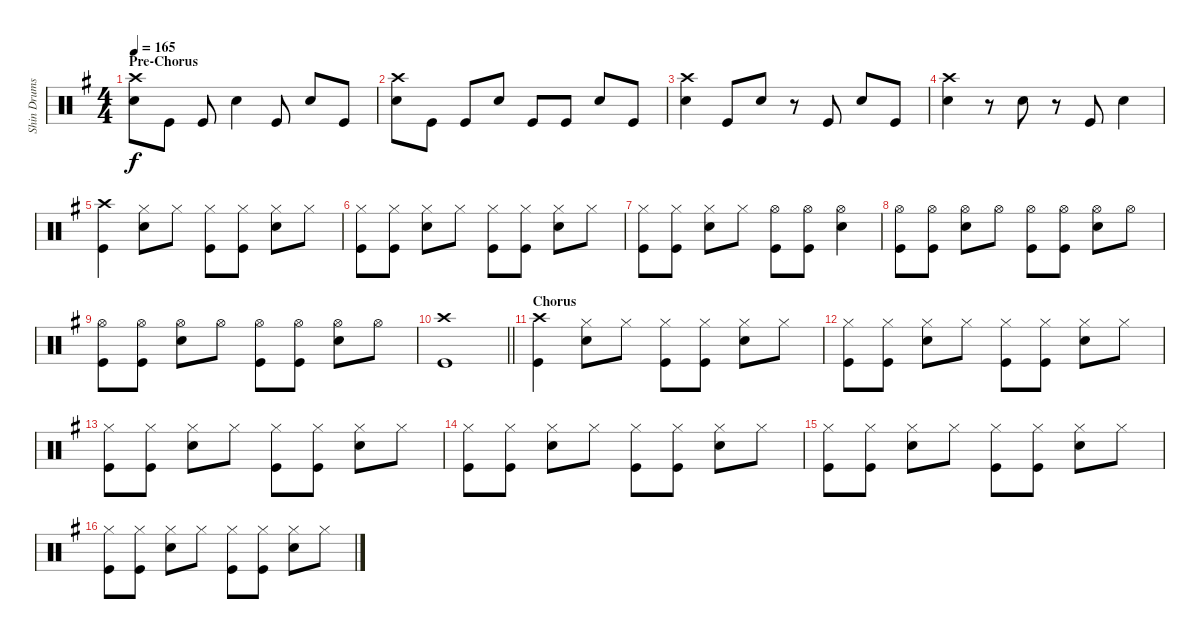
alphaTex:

\track ("Shin Drums" "Shin Drums") {instrument percussion}
\staff {score}
\articulation defaults
\ts (4 4)
\section ("" "Pre-Chorus")
\tempo 165
\clef neutral
\ks g
("Crash high (hit)" "Snare (hit) 2").8{dy f} "Kick (hit)".8 "Kick (hit)".8 "Snare (hit) 2".4 "Kick (hit)".8 "Snare (hit) 2".8 "Kick (hit)".8 |
("Crash high (hit)" "Snare (hit) 2").8 "Kick (hit)".8 "Kick (hit)".8 "Snare (hit) 2".8 "Kick (hit)".8 "Kick (hit)".8 "Snare (hit) 2".8 "Kick (hit)".8 |
("Crash high (hit)" "Snare (hit) 2").4 "Kick (hit)".8 "Snare (hit) 2".8 r.8 "Kick (hit)".8 "Snare (hit) 2".8 "Kick (hit)".8 |
("Crash high (hit)" "Snare (hit) 2").4 r.8 "Snare (hit) 2".8 r.8 "Kick (hit)".8 "Snare (hit) 2".4 |
("Crash high (hit)" "Kick (hit)").4 ("Hi-Hat (closed)" "Snare (hit) 2").8 "Hi-Hat (closed)".8 ("Hi-Hat (closed)" "Kick (hit)").8 ("Hi-Hat (closed)" "Kick (hit)").8 ("Hi-Hat (closed)" "Snare (hit) 2").8 "Hi-Hat (closed)".8 |
("Hi-Hat (closed)" "Kick (hit)").8 ("Hi-Hat (closed)" "Kick (hit)").8 ("Hi-Hat (closed)" "Snare (hit) 2").8 "Hi-Hat (closed)".8 ("Hi-Hat (closed)" "Kick (hit)").8 ("Hi-Hat (closed)" "Kick (hit)").8 ("Hi-Hat (closed)" "Snare (hit) 2").8 "Hi-Hat (closed)".8 |
("Hi-Hat (closed)" "Kick (hit)").8 ("Hi-Hat (closed)" "Kick (hit)").8 ("Hi-Hat (closed)" "Snare (hit) 2").8 "Hi-Hat (closed)".8 ("Hi-Hat (open)" "Kick (hit)").8 ("Hi-Hat (open)" "Kick (hit)").8 ("Hi-Hat (open)" "Snare (hit) 2").4 |
("Hi-Hat (open)" "Kick (hit)").8 ("Hi-Hat (open)" "Kick (hit)").8 ("Hi-Hat (open)" "Snare (hit) 2").8 "Hi-Hat (open)".8 ("Hi-Hat (open)" "Kick (hit)").8 ("Hi-Hat (open)" "Kick (hit)").8 ("Hi-Hat (open)" "Snare (hit) 2").8 "Hi-Hat (open)".8 |
("Hi-Hat (open)" "Kick (hit)").8 ("Hi-Hat (open)" "Kick (hit)").8 ("Hi-Hat (open)" "Snare (hit) 2").8 "Hi-Hat (open)".8 ("Hi-Hat (open)" "Kick (hit)").8 ("Hi-Hat (open)" "Kick (hit)").8 ("Hi-Hat (open)" "Snare (hit) 2").8 "Hi-Hat (open)".8 |
\barLineRight lightlight
("Crash high (hit)" "Kick (hit)").1 |
\section ("" "Chorus")
("Crash high (hit)" "Kick (hit)").4 ("Hi-Hat (closed)" "Snare (hit) 2").8 "Hi-Hat (closed)".8 ("Hi-Hat (closed)" "Kick (hit)").8 ("Hi-Hat (closed)" "Kick (hit)").8 ("Hi-Hat (closed)" "Snare (hit) 2").8 "Hi-Hat (closed)".8 |
("Hi-Hat (closed)" "Kick (hit)").8 ("Hi-Hat (closed)" "Kick (hit)").8 ("Hi-Hat (closed)" "Snare (hit) 2").8 "Hi-Hat (closed)".8 ("Hi-Hat (closed)" "Kick (hit)").8 ("Hi-Hat (closed)" "Kick (hit)").8 ("Hi-Hat (closed)" "Snare (hit) 2").8 "Hi-Hat (closed)".8 |
("Hi-Hat (closed)" "Kick (hit)").8 ("Hi-Hat (closed)" "Kick (hit)").8 ("Hi-Hat (closed)" "Snare (hit) 2").8 "Hi-Hat (closed)".8 ("Hi-Hat (closed)" "Kick (hit)").8 ("Hi-Hat (closed)" "Kick (hit)").8 ("Hi-Hat (closed)" "Snare (hit) 2").8 "Hi-Hat (closed)".8 |
("Hi-Hat (closed)" "Kick (hit)").8 ("Hi-Hat (closed)" "Kick (hit)").8 ("Hi-Hat (closed)" "Snare (hit) 2").8 "Hi-Hat (closed)".8 ("Hi-Hat (closed)" "Kick (hit)").8 ("Hi-Hat (closed)" "Kick (hit)").8 ("Hi-Hat (closed)" "Snare (hit) 2").8 "Hi-Hat (closed)".8 |
("Hi-Hat (closed)" "Kick (hit)").8 ("Hi-Hat (closed)" "Kick (hit)").8 ("Hi-Hat (closed)" "Snare (hit) 2").8 "Hi-Hat (closed)".8 ("Hi-Hat (closed)" "Kick (hit)").8 ("Hi-Hat (closed)" "Kick (hit)").8 ("Hi-Hat (closed)" "Snare (hit) 2").8 "Hi-Hat (closed)".8 |
("Hi-Hat (closed)" "Kick (hit)").8 ("Hi-Hat (closed)" "Kick (hit)").8 ("Hi-Hat (closed)" "Snare (hit) 2").8 "Hi-Hat (closed)".8 ("Hi-Hat (closed)" "Kick (hit)").8 ("Hi-Hat (closed)" "Kick (hit)").8 ("Hi-Hat (closed)" "Snare (hit) 2").8 "Hi-Hat (closed)".8
